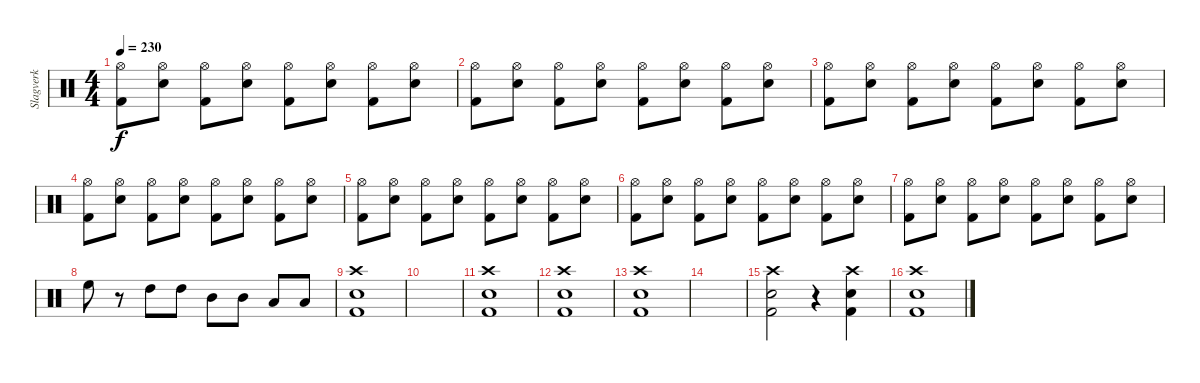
\track ("Slagverk" "Slagverk") {instrument percussion}
\staff {score}
\articulation defaults
\ts (4 4)
\tempo 230
\clef neutral
\ks c
("Kick (hit) 2" "Hi-Hat (open)").8{dy f} ("Snare (hit) 2" "Hi-Hat (open)").8 ("Kick (hit) 2" "Hi-Hat (open)").8 ("Snare (hit) 2" "Hi-Hat (open)").8 ("Kick (hit) 2" "Hi-Hat (open)").8 ("Snare (hit) 2" "Hi-Hat (open)").8 ("Kick (hit) 2" "Hi-Hat (open)").8 ("Snare (hit) 2" "Hi-Hat (open)").8 |
("Kick (hit) 2" "Hi-Hat (open)").8 ("Snare (hit) 2" "Hi-Hat (open)").8 ("Kick (hit) 2" "Hi-Hat (open)").8 ("Snare (hit) 2" "Hi-Hat (open)").8 ("Kick (hit) 2" "Hi-Hat (open)").8 ("Snare (hit) 2" "Hi-Hat (open)").8 ("Kick (hit) 2" "Hi-Hat (open)").8 ("Snare (hit) 2" "Hi-Hat (open)").8 |
("Kick (hit) 2" "Hi-Hat (open)").8 ("Snare (hit) 2" "Hi-Hat (open)").8 ("Kick (hit) 2" "Hi-Hat (open)").8 ("Snare (hit) 2" "Hi-Hat (open)").8 ("Kick (hit) 2" "Hi-Hat (open)").8 ("Snare (hit) 2" "Hi-Hat (open)").8 ("Kick (hit) 2" "Hi-Hat (open)").8 ("Snare (hit) 2" "Hi-Hat (open)").8 |
("Kick (hit) 2" "Hi-Hat (open)").8 ("Snare (hit) 2" "Hi-Hat (open)").8 ("Kick (hit) 2" "Hi-Hat (open)").8 ("Snare (hit) 2" "Hi-Hat (open)").8 ("Kick (hit) 2" "Hi-Hat (open)").8 ("Snare (hit) 2" "Hi-Hat (open)").8 ("Kick (hit) 2" "Hi-Hat (open)").8 ("Snare (hit) 2" "Hi-Hat (open)").8 |
("Kick (hit) 2" "Hi-Hat (open)").8 ("Snare (hit) 2" "Hi-Hat (open)").8 ("Kick (hit) 2" "Hi-Hat (open)").8 ("Snare (hit) 2" "Hi-Hat (open)").8 ("Kick (hit) 2" "Hi-Hat (open)").8 ("Snare (hit) 2" "Hi-Hat (open)").8 ("Kick (hit) 2" "Hi-Hat (open)").8 ("Snare (hit) 2" "Hi-Hat (open)").8 |
("Kick (hit) 2" "Hi-Hat (open)").8 ("Snare (hit) 2" "Hi-Hat (open)").8 ("Kick (hit) 2" "Hi-Hat (open)").8 ("Snare (hit) 2" "Hi-Hat (open)").8 ("Kick (hit) 2" "Hi-Hat (open)").8 ("Snare (hit) 2" "Hi-Hat (open)").8 ("Kick (hit) 2" "Hi-Hat (open)").8 ("Snare (hit) 2" "Hi-Hat (open)").8 |
("Kick (hit) 2" "Hi-Hat (open)").8 ("Snare (hit) 2" "Hi-Hat (open)").8 ("Kick (hit) 2" "Hi-Hat (open)").8 ("Snare (hit) 2" "Hi-Hat (open)").8 ("Kick (hit) 2" "Hi-Hat (open)").8 ("Snare (hit) 2" "Hi-Hat (open)").8 ("Kick (hit) 2" "Hi-Hat (open)").8 ("Snare (hit) 2" "Hi-Hat (open)").8 |
"High Floor Tom (hit)".8 r.8 "High Tom (hit)".8 "High Tom (hit)".8 "Mid Tom (hit)".8 "Mid Tom (hit)".8 "Low Tom (hit)".8 "Low Tom (hit)".8 |
("Kick (hit) 2" "Snare (hit) 2" "Crash high (hit)").1 |
|
("Kick (hit) 2" "Snare (hit) 2" "Crash high (hit)").1 |
("Kick (hit) 2" "Snare (hit) 2" "Crash high (hit)").1 |
("Kick (hit) 2" "Snare (hit) 2" "Crash high (hit)").1 |
|
("Kick (hit) 2" "Snare (hit) 2" "Crash high (hit)").2 r.4 ("Kick (hit) 2" "Snare (hit) 2" "Crash high (hit)").4 |
("Kick (hit) 2" "Snare (hit) 2" "Crash high (hit)").1
